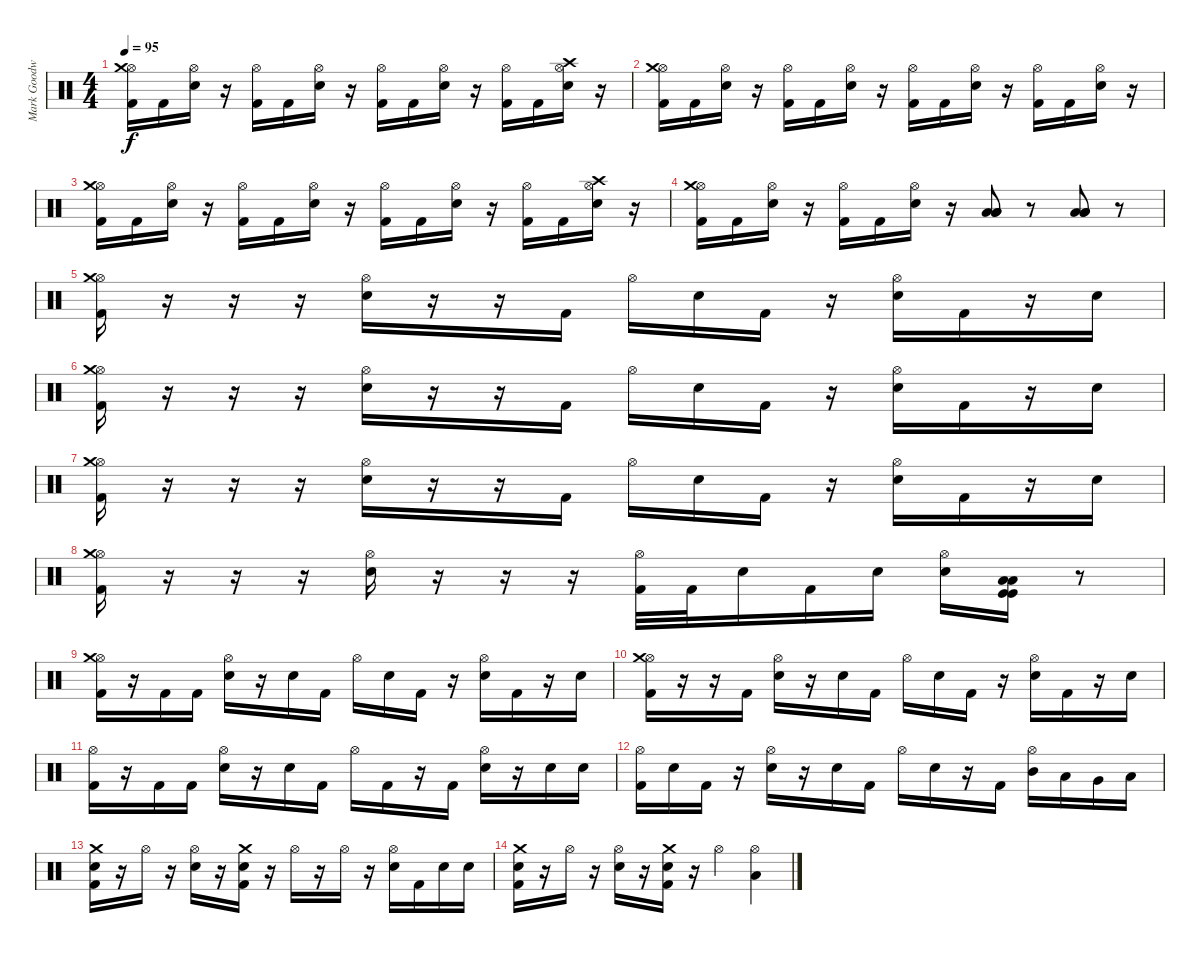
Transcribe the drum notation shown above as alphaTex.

\track ("Mark Goodwin" "Mark Goodw") {instrument percussion}
\staff {score}
\articulation defaults
\ts (4 4)
\tempo 95
\clef neutral
\ks c
("Hi-Hat (open)" "Crash medium (hit)" "Kick (hit) 2").16{dy f} "Kick (hit) 2".16 ("Hi-Hat (open)" "Electric Snare (hit)").16 r.16 ("Hi-Hat (open)" "Kick (hit) 2").16 "Kick (hit) 2".16 ("Hi-Hat (open)" "Electric Snare (hit)").16 r.16 ("Hi-Hat (open)" "Kick (hit) 2").16 "Kick (hit) 2".16 ("Hi-Hat (open)" "Electric Snare (hit)").16 r.16 ("Hi-Hat (open)" "Kick (hit) 2").16 "Kick (hit) 2".16 ("Hi-Hat (open)" "Crash high (hit)" "Electric Snare (hit)").16 r.16 |
("Hi-Hat (open)" "Crash medium (hit)" "Kick (hit) 2").16 "Kick (hit) 2".16 ("Hi-Hat (open)" "Electric Snare (hit)").16 r.16 ("Hi-Hat (open)" "Kick (hit) 2").16 "Kick (hit) 2".16 ("Hi-Hat (open)" "Electric Snare (hit)").16 r.16 ("Hi-Hat (open)" "Kick (hit) 2").16 "Kick (hit) 2".16 ("Hi-Hat (open)" "Electric Snare (hit)").16 r.16 ("Hi-Hat (open)" "Kick (hit) 2").16 "Kick (hit) 2".16 ("Hi-Hat (open)" "Electric Snare (hit)").16 r.16 |
("Hi-Hat (open)" "Crash medium (hit)" "Kick (hit) 2").16 "Kick (hit) 2".16 ("Hi-Hat (open)" "Electric Snare (hit)").16 r.16 ("Hi-Hat (open)" "Kick (hit) 2").16 "Kick (hit) 2".16 ("Hi-Hat (open)" "Electric Snare (hit)").16 r.16 ("Hi-Hat (open)" "Kick (hit) 2").16 "Kick (hit) 2".16 ("Hi-Hat (open)" "Electric Snare (hit)").16 r.16 ("Hi-Hat (open)" "Kick (hit) 2").16 "Kick (hit) 2".16 ("Hi-Hat (open)" "Crash high (hit)" "Electric Snare (hit)").16 r.16 |
("Hi-Hat (open)" "Crash medium (hit)" "Kick (hit) 2").16 "Kick (hit) 2".16 ("Hi-Hat (open)" "Electric Snare (hit)").16 r.16 ("Hi-Hat (open)" "Kick (hit) 2").16 "Kick (hit) 2".16 ("Hi-Hat (open)" "Electric Snare (hit)").16 r.16 ("Low Tom (hit)" "Low Tom (hit)" "Low Tom (hit)").8 r.8 ("Low Floor Tom (hit)" "Low Floor Tom (hit)" "Low Floor Tom (hit)").8 r.8 |
("Hi-Hat (open)" "Crash medium (hit)" "Kick (hit) 2").16 r.16 r.16 r.16 ("Hi-Hat (open)" "Electric Snare (hit)").16 r.16 r.16 "Kick (hit) 2".16 "Hi-Hat (open)".16 "Electric Snare (hit)".16 "Kick (hit) 2".16 r.16 ("Hi-Hat (open)" "Electric Snare (hit)").16 "Kick (hit) 2".16 r.16 "Electric Snare (hit)".16 |
("Hi-Hat (open)" "Crash medium (hit)" "Kick (hit) 2").16 r.16 r.16 r.16 ("Hi-Hat (open)" "Electric Snare (hit)").16 r.16 r.16 "Kick (hit) 2".16 "Hi-Hat (open)".16 "Electric Snare (hit)".16 "Kick (hit) 2".16 r.16 ("Hi-Hat (open)" "Electric Snare (hit)").16 "Kick (hit) 2".16 r.16 "Electric Snare (hit)".16 |
("Hi-Hat (open)" "Crash medium (hit)" "Kick (hit) 2").16 r.16 r.16 r.16 ("Hi-Hat (open)" "Electric Snare (hit)").16 r.16 r.16 "Kick (hit) 2".16 "Hi-Hat (open)".16 "Electric Snare (hit)".16 "Kick (hit) 2".16 r.16 ("Hi-Hat (open)" "Electric Snare (hit)").16 "Kick (hit) 2".16 r.16 "Electric Snare (hit)".16 |
("Hi-Hat (open)" "Crash medium (hit)" "Kick (hit) 2").16 r.16 r.16 r.16 ("Hi-Hat (open)" "Electric Snare (hit)").16 r.16 r.16 r.16 ("Hi-Hat (open)" "Kick (hit) 2").32 "Kick (hit) 2".32 "Electric Snare (hit)".16 "Kick (hit) 2".16 "Electric Snare (hit)".16 ("Hi-Hat (open)" "Electric Snare (hit)").16 ("Low Floor Tom (hit)" "Low Floor Tom (hit)" "Kick (hit)" "Kick (hit)").16 r.8 |
("Hi-Hat (open)" "Crash medium (hit)" "Kick (hit) 2").16 r.16 "Kick (hit) 2".16 "Kick (hit) 2".16 ("Hi-Hat (open)" "Electric Snare (hit)").16 r.16 "Electric Snare (hit)".16 "Kick (hit) 2".16 "Hi-Hat (open)".16 "Electric Snare (hit)".16 "Kick (hit) 2".16 r.16 ("Hi-Hat (open)" "Electric Snare (hit)").16 "Kick (hit) 2".16 r.16 "Electric Snare (hit)".16 |
("Hi-Hat (open)" "Crash medium (hit)" "Kick (hit) 2").16 r.16 r.16 "Kick (hit) 2".16 ("Hi-Hat (open)" "Electric Snare (hit)").16 r.16 "Electric Snare (hit)".16 "Kick (hit) 2".16 "Hi-Hat (open)".16 "Electric Snare (hit)".16 "Kick (hit) 2".16 r.16 ("Hi-Hat (open)" "Electric Snare (hit)").16 "Kick (hit) 2".16 r.16 "Electric Snare (hit)".16 |
("Hi-Hat (open)" "Kick (hit) 2").16 r.16 "Kick (hit) 2".16 "Kick (hit) 2".16 ("Hi-Hat (open)" "Electric Snare (hit)").16 r.16 "Electric Snare (hit)".16 "Kick (hit) 2".16 "Hi-Hat (open)".16 "Kick (hit) 2".16 r.16 "Kick (hit) 2".16 ("Hi-Hat (open)" "Electric Snare (hit)").16 r.16 "Electric Snare (hit)".16 "Electric Snare (hit)".16 |
("Hi-Hat (open)" "Kick (hit) 2").16 "Electric Snare (hit)".16 "Kick (hit) 2".16 r.16 ("Hi-Hat (open)" "Electric Snare (hit)").16 r.16 "Electric Snare (hit)".16 "Kick (hit) 2".16 "Hi-Hat (open)".16 "Electric Snare (hit)".16 r.16 "Kick (hit) 2".16 ("Hi-Hat (open)" "Mid Tom (hit)").16 "Low Tom (hit)".16 "Very Low Tom (hit)".16 "Low Floor Tom (hit)".16 |
("Crash medium (hit)" "Electric Snare (hit)" "Kick (hit) 2").16 r.16 "Hi-Hat (open)".16 r.16 ("Hi-Hat (open)" "Electric Snare (hit)").16 r.16 ("Crash medium (hit)" "Electric Snare (hit)" "Kick (hit) 2").16 r.16 "Hi-Hat (open)".16 r.16 "Hi-Hat (open)".16 r.16 ("Hi-Hat (open)" "Electric Snare (hit)").16 "Kick (hit) 2".16 "Electric Snare (hit)".16 "Electric Snare (hit)".16 |
("Crash medium (hit)" "Electric Snare (hit)" "Kick (hit) 2").16 r.16 "Hi-Hat (open)".16 r.16 ("Hi-Hat (open)" "Electric Snare (hit)").16 r.16 ("Crash medium (hit)" "Electric Snare (hit)" "Kick (hit) 2").16 r.16 "Hi-Hat (open)".4 ("Hi-Hat (open)" "Low Floor Tom (hit)").4
